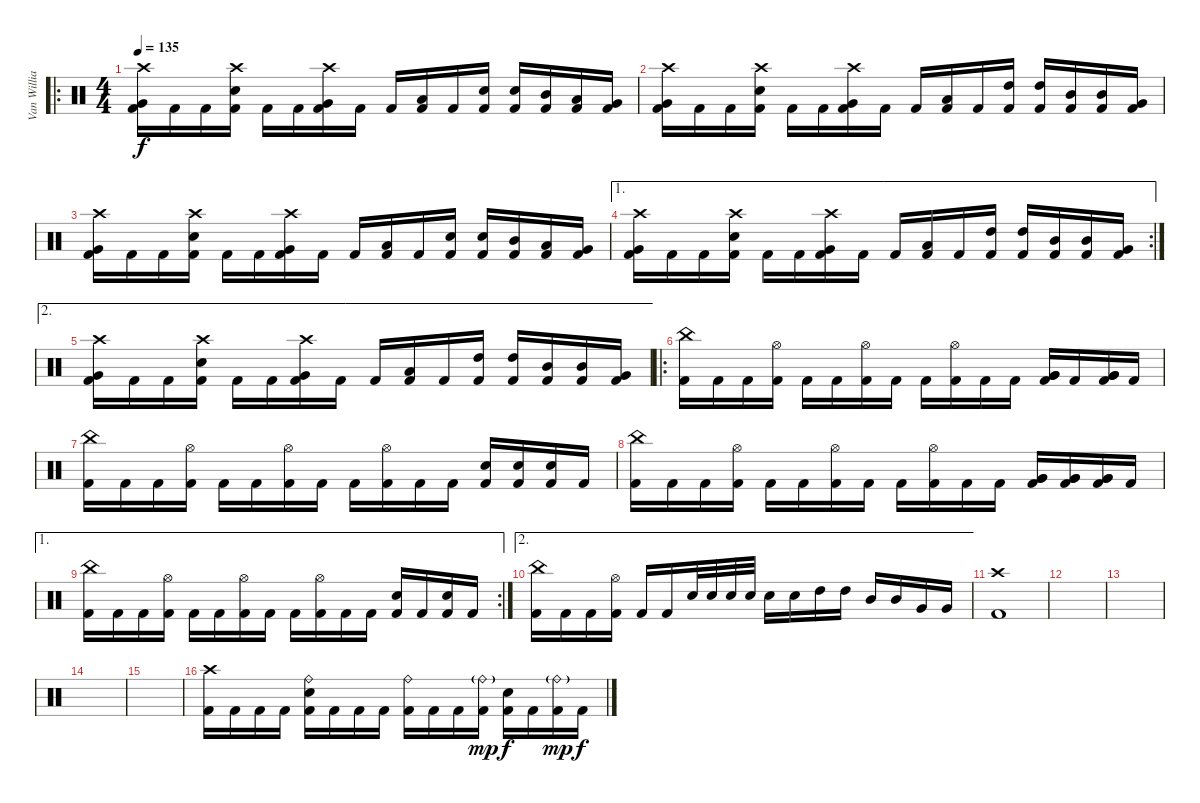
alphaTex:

\track ("Van Williams" "Van Willia") {instrument percussion}
\staff {score}
\articulation defaults
\ro
\ts (4 4)
\tempo 135
\clef neutral
\ks c
("Crash high (hit)" "Kick (hit) 2" "Very Low Tom (hit)").16{dy f} "Kick (hit) 2".16 "Kick (hit) 2".16 ("Crash high (hit)" "Kick (hit) 2" "Electric Snare (hit)").16 "Kick (hit) 2".16 "Kick (hit) 2".16 ("Crash high (hit)" "Kick (hit) 2" "Very Low Tom (hit)").16 "Kick (hit) 2".16 "Kick (hit) 2".16 ("Kick (hit) 2" "Low Tom (hit)").16 "Kick (hit) 2".16 ("Kick (hit) 2" "Electric Snare (hit)").16 ("Kick (hit) 2" "Electric Snare (hit)").16 ("Kick (hit) 2" "Mid Tom (hit)").16 ("Kick (hit) 2" "Low Tom (hit)").16 ("Kick (hit) 2" "Very Low Tom (hit)").16 |
("Crash high (hit)" "Kick (hit) 2" "Very Low Tom (hit)").16 "Kick (hit) 2".16 "Kick (hit) 2".16 ("Crash high (hit)" "Kick (hit) 2" "Electric Snare (hit)").16 "Kick (hit) 2".16 "Kick (hit) 2".16 ("Crash high (hit)" "Kick (hit) 2" "Very Low Tom (hit)").16 "Kick (hit) 2".16 "Kick (hit) 2".16 ("Kick (hit) 2" "Low Tom (hit)").16 "Kick (hit) 2".16 ("Kick (hit) 2" "High Tom (hit)").16 ("Kick (hit) 2" "High Tom (hit)").16 ("Kick (hit) 2" "Mid Tom (hit)").16 ("Kick (hit) 2" "Mid Tom (hit)").16 ("Kick (hit) 2" "Very Low Tom (hit)").16 |
("Crash high (hit)" "Kick (hit) 2" "Very Low Tom (hit)").16 "Kick (hit) 2".16 "Kick (hit) 2".16 ("Crash high (hit)" "Kick (hit) 2" "Electric Snare (hit)").16 "Kick (hit) 2".16 "Kick (hit) 2".16 ("Crash high (hit)" "Kick (hit) 2" "Very Low Tom (hit)").16 "Kick (hit) 2".16 "Kick (hit) 2".16 ("Kick (hit) 2" "Low Tom (hit)").16 "Kick (hit) 2".16 ("Kick (hit) 2" "Electric Snare (hit)").16 ("Kick (hit) 2" "Electric Snare (hit)").16 ("Kick (hit) 2" "Mid Tom (hit)").16 ("Kick (hit) 2" "Low Tom (hit)").16 ("Kick (hit) 2" "Very Low Tom (hit)").16 |
\ae 1
\rc 2
("Crash high (hit)" "Kick (hit) 2" "Very Low Tom (hit)").16 "Kick (hit) 2".16 "Kick (hit) 2".16 ("Crash high (hit)" "Kick (hit) 2" "Electric Snare (hit)").16 "Kick (hit) 2".16 "Kick (hit) 2".16 ("Crash high (hit)" "Kick (hit) 2" "Very Low Tom (hit)").16 "Kick (hit) 2".16 "Kick (hit) 2".16 ("Kick (hit) 2" "Low Tom (hit)").16 "Kick (hit) 2".16 ("Kick (hit) 2" "High Tom (hit)").16 ("Kick (hit) 2" "High Tom (hit)").16 ("Kick (hit) 2" "Mid Tom (hit)").16 ("Kick (hit) 2" "Mid Tom (hit)").16 ("Kick (hit) 2" "Very Low Tom (hit)").16 |
\ae 2
("Crash high (hit)" "Kick (hit) 2" "Very Low Tom (hit)").16 "Kick (hit) 2".16 "Kick (hit) 2".16 ("Crash high (hit)" "Kick (hit) 2" "Electric Snare (hit)").16 "Kick (hit) 2".16 "Kick (hit) 2".16 ("Crash high (hit)" "Kick (hit) 2" "Very Low Tom (hit)").16 "Kick (hit) 2".16 "Kick (hit) 2".16 ("Kick (hit) 2" "Low Tom (hit)").16 "Kick (hit) 2".16 ("Kick (hit) 2" "High Tom (hit)").16 ("Kick (hit) 2" "High Tom (hit)").16 ("Kick (hit) 2" "Mid Tom (hit)").16 ("Kick (hit) 2" "Mid Tom (hit)").16 ("Kick (hit) 2" "Very Low Tom (hit)").16 |
\ro
("China (hit)" "Kick (hit) 2").16 "Kick (hit) 2".16 "Kick (hit) 2".16 ("Hi-Hat (open)" "Kick (hit) 2").16 "Kick (hit) 2".16 "Kick (hit) 2".16 ("Hi-Hat (open)" "Kick (hit) 2").16 "Kick (hit) 2".16 "Kick (hit) 2".16 ("Hi-Hat (open)" "Kick (hit) 2").16 "Kick (hit) 2".16 "Kick (hit) 2".16 ("Kick (hit) 2" "Very Low Tom (hit)" "Very Low Tom (hit)").16 "Kick (hit) 2".16 ("Kick (hit) 2" "Very Low Tom (hit)" "Very Low Tom (hit)").16 "Kick (hit) 2".16 |
("China (hit)" "Kick (hit) 2").16 "Kick (hit) 2".16 "Kick (hit) 2".16 ("Hi-Hat (open)" "Kick (hit) 2").16 "Kick (hit) 2".16 "Kick (hit) 2".16 ("Hi-Hat (open)" "Kick (hit) 2").16 "Kick (hit) 2".16 "Kick (hit) 2".16 ("Hi-Hat (open)" "Kick (hit) 2").16 "Kick (hit) 2".16 "Kick (hit) 2".16 ("Kick (hit) 2" "Electric Snare (hit)").16 ("Kick (hit) 2" "Electric Snare (hit)").16 ("Kick (hit) 2" "Electric Snare (hit)").16 "Kick (hit) 2".16 |
("China (hit)" "Kick (hit) 2").16 "Kick (hit) 2".16 "Kick (hit) 2".16 ("Hi-Hat (open)" "Kick (hit) 2").16 "Kick (hit) 2".16 "Kick (hit) 2".16 ("Hi-Hat (open)" "Kick (hit) 2").16 "Kick (hit) 2".16 "Kick (hit) 2".16 ("Hi-Hat (open)" "Kick (hit) 2").16 "Kick (hit) 2".16 "Kick (hit) 2".16 ("Kick (hit) 2" "Very Low Tom (hit)" "Very Low Tom (hit)").16 ("Kick (hit) 2" "Very Low Tom (hit)" "Very Low Tom (hit)").16 ("Kick (hit) 2" "Very Low Tom (hit)" "Very Low Tom (hit)").16 "Kick (hit) 2".16 |
\ae 1
\rc 2
("China (hit)" "Kick (hit) 2").16 "Kick (hit) 2".16 "Kick (hit) 2".16 ("Hi-Hat (open)" "Kick (hit) 2").16 "Kick (hit) 2".16 "Kick (hit) 2".16 ("Hi-Hat (open)" "Kick (hit) 2").16 "Kick (hit) 2".16 "Kick (hit) 2".16 ("Hi-Hat (open)" "Kick (hit) 2").16 "Kick (hit) 2".16 "Kick (hit) 2".16 ("Kick (hit) 2" "Electric Snare (hit)").16 "Kick (hit) 2".16 ("Kick (hit) 2" "Electric Snare (hit)").16 "Kick (hit) 2".16 |
\ae 2
("China (hit)" "Kick (hit) 2").16 "Kick (hit) 2".16 "Kick (hit) 2".16 ("Hi-Hat (open)" "Kick (hit) 2").16 "Kick (hit) 2".16 "Kick (hit) 2".16 "Electric Snare (hit)".32 "Electric Snare (hit)".32 "Electric Snare (hit)".32 "Electric Snare (hit)".32 "Electric Snare (hit)".16 "Electric Snare (hit)".16 "High Tom (hit)".16 "High Tom (hit)".16 "Mid Tom (hit)".16 "Mid Tom (hit)".16 "Very Low Tom (hit)".16 "Very Low Tom (hit)".16 |
("Crash high (hit)" "Kick (hit) 2").1 |
|
|
|
|
("Crash high (hit)" "Kick (hit) 2").16 "Kick (hit) 2".16 "Kick (hit) 2".16 "Kick (hit) 2".16 ("Ride (bell)" "Kick (hit) 2" "Electric Snare (hit)").16 "Kick (hit) 2".16 "Kick (hit) 2".16 "Kick (hit) 2".16 ("Ride (bell)" "Kick (hit) 2").16 "Kick (hit) 2".16 "Kick (hit) 2".16 ("Ride (bell)"{g} "Kick (hit) 2").16{dy mp} ("Kick (hit) 2" "Electric Snare (hit)").16{dy f} "Kick (hit) 2".16 ("Ride (bell)"{g} "Kick (hit) 2").16{dy mp} "Kick (hit) 2".16{dy f}
